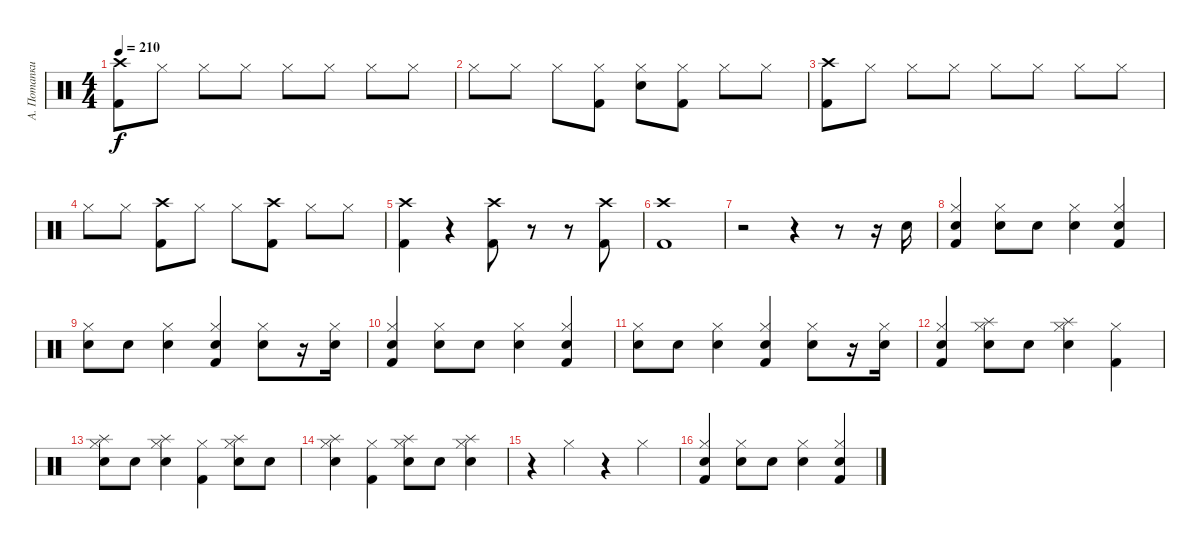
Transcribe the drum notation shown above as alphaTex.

\track ("А. Потапкин" "А. Потапки") {instrument percussion}
\staff {score}
\articulation defaults
\ts (4 4)
\tempo 210
\clef neutral
\ks c
("Crash high (hit)" "Kick (hit) 2").8{dy f} "Hi-Hat (closed)".8 "Hi-Hat (closed)".8 "Hi-Hat (closed)".8 "Hi-Hat (closed)".8 "Hi-Hat (closed)".8 "Hi-Hat (closed)".8 "Hi-Hat (closed)".8 |
"Hi-Hat (closed)".8 "Hi-Hat (closed)".8 "Hi-Hat (closed)".8 ("Hi-Hat (closed)" "Kick (hit) 2").8 ("Hi-Hat (closed)" "Snare (hit) 2").8 ("Hi-Hat (closed)" "Kick (hit) 2").8 "Hi-Hat (closed)".8 "Hi-Hat (closed)".8 |
("Crash high (hit)" "Kick (hit) 2").8 "Hi-Hat (closed)".8 "Hi-Hat (closed)".8 "Hi-Hat (closed)".8 "Hi-Hat (closed)".8 "Hi-Hat (closed)".8 "Hi-Hat (closed)".8 "Hi-Hat (closed)".8 |
"Hi-Hat (closed)".8 "Hi-Hat (closed)".8 ("Crash high (hit)" "Kick (hit) 2").8 "Hi-Hat (closed)".8 "Hi-Hat (closed)".8 ("Crash high (hit)" "Kick (hit) 2").8 "Hi-Hat (closed)".8 "Hi-Hat (closed)".8 |
("Crash high (hit)" "Kick (hit) 2").4 r.4 ("Crash high (hit)" "Kick (hit) 2").8 r.8 r.8 ("Crash high (hit)" "Kick (hit) 2").8 |
("Crash high (hit)" "Kick (hit) 2").1 |
r.2 r.4 r.8 r.16 "Electric Snare (hit)".16 |
("Hi-Hat (closed)" "Electric Snare (hit)" "Kick (hit) 2").4 ("Hi-Hat (closed)" "Electric Snare (hit)").8 "Electric Snare (hit)".8 ("Hi-Hat (closed)" "Electric Snare (hit)").4 ("Hi-Hat (closed)" "Electric Snare (hit)" "Kick (hit) 2").4 |
("Hi-Hat (closed)" "Electric Snare (hit)").8 "Electric Snare (hit)".8 ("Hi-Hat (closed)" "Electric Snare (hit)").4 ("Hi-Hat (closed)" "Electric Snare (hit)" "Kick (hit) 2").4 ("Hi-Hat (closed)" "Electric Snare (hit)").8 r.16 ("Hi-Hat (closed)" "Electric Snare (hit)").16 |
("Hi-Hat (closed)" "Electric Snare (hit)" "Kick (hit) 2").4 ("Hi-Hat (closed)" "Electric Snare (hit)").8 "Electric Snare (hit)".8 ("Hi-Hat (closed)" "Electric Snare (hit)").4 ("Hi-Hat (closed)" "Electric Snare (hit)" "Kick (hit) 2").4 |
("Hi-Hat (closed)" "Electric Snare (hit)").8 "Electric Snare (hit)".8 ("Hi-Hat (closed)" "Electric Snare (hit)").4 ("Hi-Hat (closed)" "Electric Snare (hit)" "Kick (hit) 2").4 ("Hi-Hat (closed)" "Electric Snare (hit)").8 r.16 ("Hi-Hat (closed)" "Electric Snare (hit)").16 |
("Hi-Hat (closed)" "Electric Snare (hit)" "Kick (hit) 2").4 ("Hi-Hat (closed)" "Splash (hit)" "Electric Snare (hit)").8 "Electric Snare (hit)".8 ("Hi-Hat (closed)" "Splash (hit)" "Electric Snare (hit)").4 ("Hi-Hat (closed)" "Kick (hit) 2").4 |
("Hi-Hat (closed)" "Splash (hit)" "Electric Snare (hit)").8 "Electric Snare (hit)".8 ("Hi-Hat (closed)" "Splash (hit)" "Electric Snare (hit)").4 ("Hi-Hat (closed)" "Kick (hit) 2").4 ("Hi-Hat (closed)" "Splash (hit)" "Electric Snare (hit)").8 "Electric Snare (hit)".8 |
("Hi-Hat (closed)" "Splash (hit)" "Electric Snare (hit)").4 ("Hi-Hat (closed)" "Kick (hit) 2").4 ("Hi-Hat (closed)" "Splash (hit)" "Electric Snare (hit)").8 "Electric Snare (hit)".8 ("Hi-Hat (closed)" "Splash (hit)" "Electric Snare (hit)").4 |
r.4 "Hi-Hat (closed)".4 r.4 "Hi-Hat (closed)".4 |
("Hi-Hat (closed)" "Electric Snare (hit)" "Kick (hit) 2").4 ("Hi-Hat (closed)" "Electric Snare (hit)").8 "Electric Snare (hit)".8 ("Hi-Hat (closed)" "Electric Snare (hit)").4 ("Hi-Hat (closed)" "Electric Snare (hit)" "Kick (hit) 2").4
